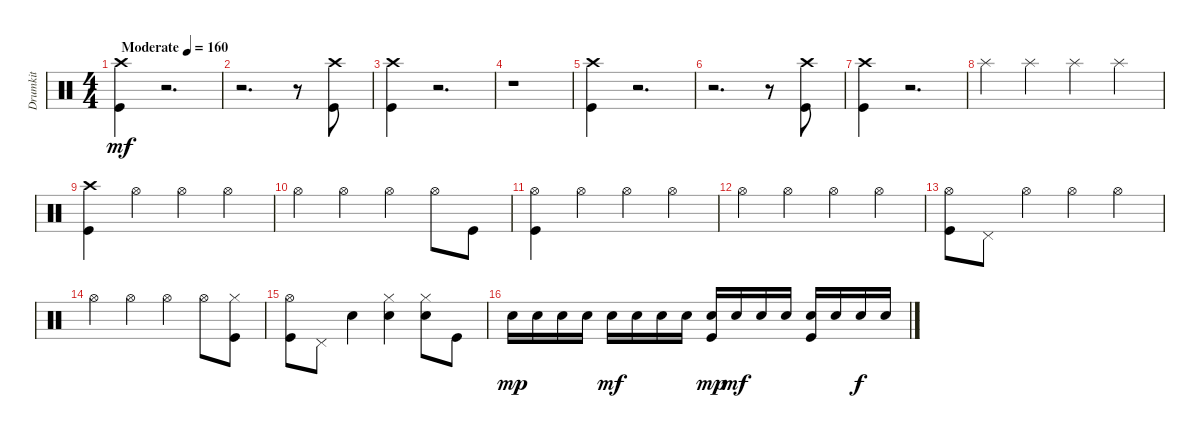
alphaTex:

\track ("Drumkit" "Drumkit") {instrument percussion}
\staff {score}
\articulation defaults
\ts (4 4)
\tempo (160 "Moderate")
\clef neutral
\ks c
("Kick (hit)" "Crash high (hit)").4{dy mf} r.2{d} |
r.2{d} r.8 ("Kick (hit)" "Crash high (hit)").8 |
("Kick (hit)" "Crash high (hit)").4 r.2{d} |
r.1 |
("Kick (hit)" "Crash high (hit)").4 r.2{d} |
r.2{d} r.8 ("Kick (hit)" "Crash high (hit)").8 |
("Kick (hit)" "Crash high (hit)").4 r.2{d} |
"Splash (hit)".4 "Splash (hit)".4 "Splash (hit)".4 "Splash (hit)".4 |
("Crash high (hit)" "Kick (hit)").4 "Hi-Hat (open)".4 "Hi-Hat (open)".4 "Hi-Hat (open)".4 |
"Hi-Hat (open)".4 "Hi-Hat (open)".4 "Hi-Hat (open)".4 "Hi-Hat (open)".8 "Kick (hit)".8 |
("Kick (hit)" "Hi-Hat (open)").4 "Hi-Hat (open)".4 "Hi-Hat (open)".4 "Hi-Hat (open)".4 |
"Hi-Hat (open)".4 "Hi-Hat (open)".4 "Hi-Hat (open)".4 "Hi-Hat (open)".4 |
("Kick (hit)" "Hi-Hat (open)").8 "Pedal Hi-Hat (hit)".8 "Hi-Hat (open)".4 "Hi-Hat (open)".4 "Hi-Hat (open)".4 |
"Hi-Hat (open)".4 "Hi-Hat (open)".4 "Hi-Hat (open)".4 "Hi-Hat (open)".8 ("Kick (hit)" "Hi-Hat (closed)").8 |
("Kick (hit)" "Hi-Hat (open)").8 "Pedal Hi-Hat (hit)".8 "Snare (hit) 2".4 ("Snare (hit) 2" "Hi-Hat (closed)").4 ("Snare (hit) 2" "Hi-Hat (closed)").8 "Kick (hit)".8 |
"Snare (hit) 2".16{dy mp} "Snare (hit) 2".16 "Snare (hit) 2".16 "Snare (hit) 2".16 "Snare (hit) 2".16{dy mf} "Snare (hit) 2".16 "Snare (hit) 2".16 "Snare (hit) 2".16 ("Snare (hit) 2" "Kick (hit)").16{dy mp} "Snare (hit) 2".16{dy mf} "Snare (hit) 2".16 "Snare (hit) 2".16 ("Snare (hit) 2" "Kick (hit)").16 "Snare (hit) 2".16 "Snare (hit) 2".16{dy f} "Snare (hit) 2".16
